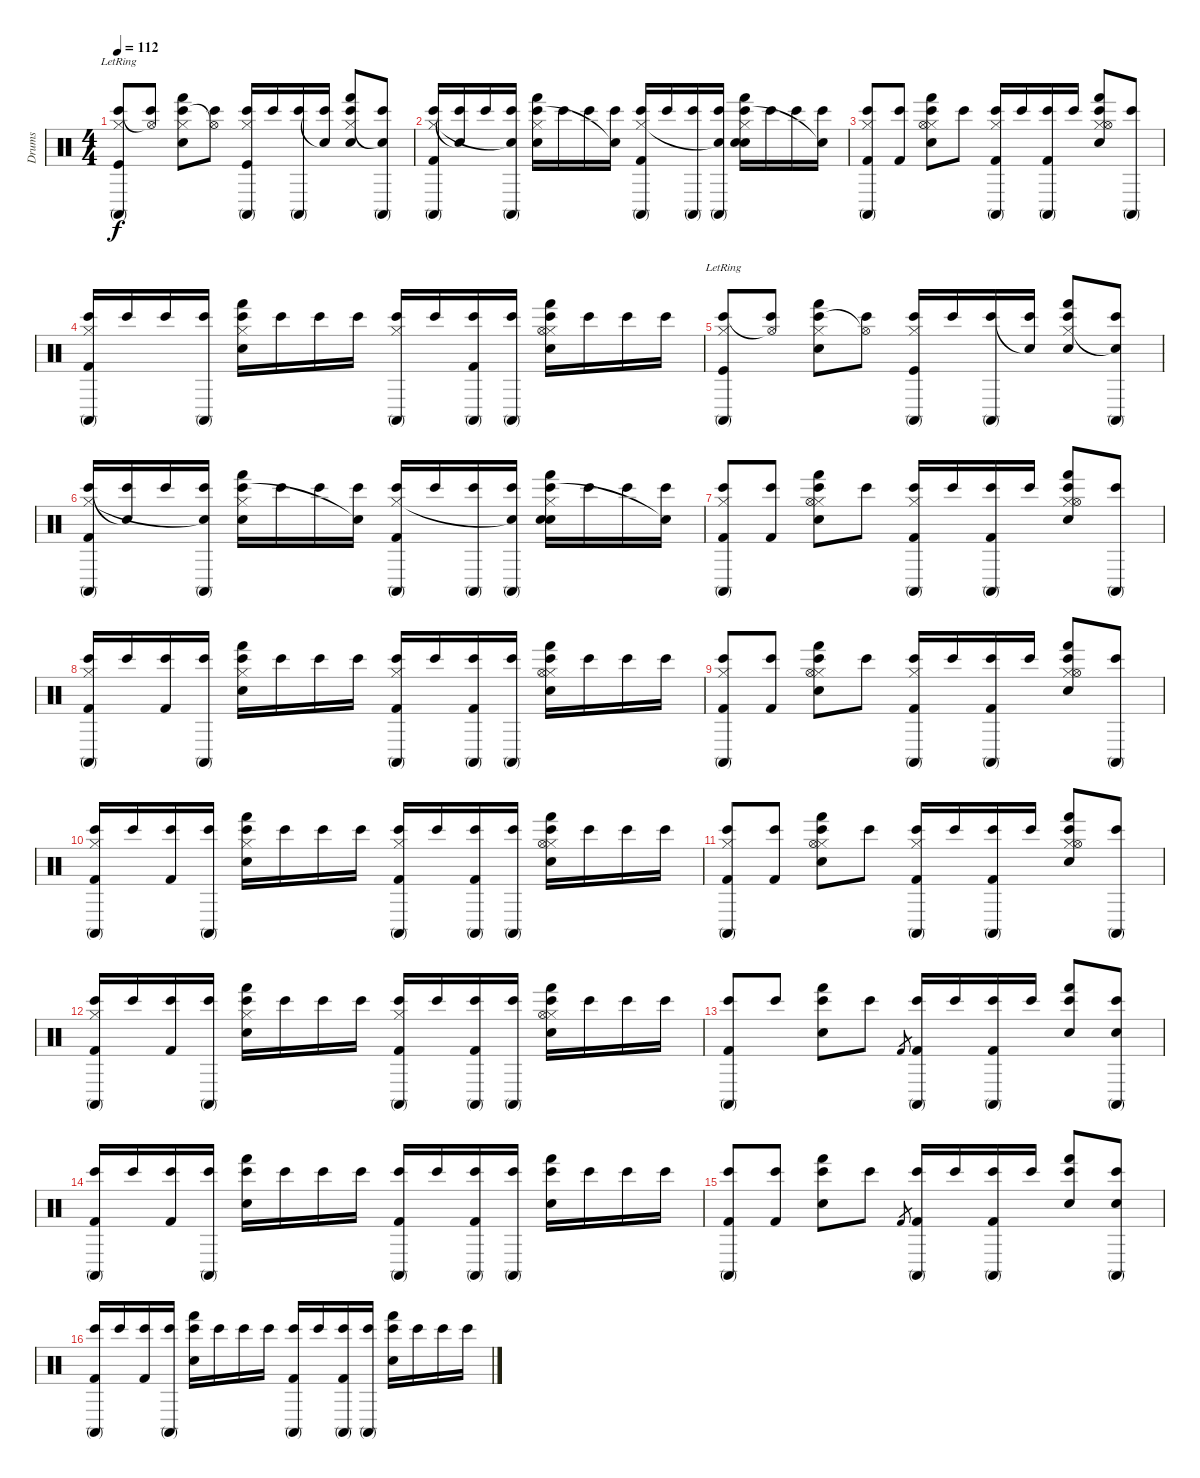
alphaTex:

\track ("Drums" "Drums") {instrument percussion}
\staff {score}
\articulation defaults
\ts (4 4)
\tempo 112
\clef neutral
\ks c
("Conga high (mute)" "Bongo High (hit)" "Hi-Hat (closed)"{lr} "Kick (hit)").8{dy f} ("Bongo High (hit)" "Hi-Hat (open)"{t}).8 ("Hand (hit)" "Bongo High (hit)" "Hi-Hat (closed)" "Snare (hit) 2").8 ("Bongo High (hit)" "Hi-Hat (open)"{t}).8 ("Conga high (mute)" "Bongo High (hit)" "Hi-Hat (closed)" "Kick (hit)").16 "Bongo High (hit)".16 ("Conga high (mute)" "Bongo High (hit)").16 ("Bongo High (hit)" "Snare (hit)"{t}).16 ("Hand (hit)" "Bongo High (hit)" "Hi-Hat (closed)" "Snare (hit) 2").8 ("Conga high (mute)" "Bongo High (hit)" "Snare (hit)"{t}).8 |
("Conga high (mute)" "Bongo High (hit)" "Hi-Hat (closed)" "Kick (hit) 2").16 ("Bongo High (hit)" "Snare (hit)"{t}).16 "Bongo High (hit)".16 ("Conga high (mute)" "Bongo High (hit)" "Snare (hit)"{t}).16 ("Hand (hit)" "Bongo High (hit)" "Hi-Hat (closed)" "Snare (hit) 2").16 "Bongo High (hit)".16 "Bongo High (hit)".16 ("Bongo High (hit)" "Snare (hit)"{t}).16 ("Conga high (mute)" "Bongo High (hit)" "Hi-Hat (closed)" "Kick (hit) 2").16 "Bongo High (hit)".16 ("Conga high (mute)" "Bongo High (hit)").16 ("Conga high (mute)" "Bongo High (hit)" "Snare (hit)"{t}).16 ("Hand (hit)" "Bongo High (hit)" "Hi-Hat (closed)" "Electric Snare (hit)" "Snare (hit) 2").16 "Bongo High (hit)".16 "Bongo High (hit)".16 ("Bongo High (hit)" "Snare (hit)"{t}).16 |
("Conga high (mute)" "Bongo High (hit)" "Hi-Hat (closed)" "Kick (hit) 2").8 ("Bongo High (hit)" "Kick (hit) 2").8 ("Hand (hit)" "Bongo High (hit)" "Hi-Hat (closed)" "Hi-Hat (open)" "Snare (hit) 2").8 "Bongo High (hit)".8 ("Conga high (mute)" "Bongo High (hit)" "Hi-Hat (closed)" "Kick (hit) 2").16 "Bongo High (hit)".16 ("Conga high (mute)" "Bongo High (hit)" "Kick (hit) 2").16 "Bongo High (hit)".16 ("Hand (hit)" "Bongo High (hit)" "Hi-Hat (closed)" "Hi-Hat (open)" "Snare (hit) 2").8 ("Conga high (mute)" "Bongo High (hit)").8 |
("Conga high (mute)" "Bongo High (hit)" "Hi-Hat (closed)" "Kick (hit) 2").16 "Bongo High (hit)".16 "Bongo High (hit)".16 ("Conga high (mute)" "Bongo High (hit)").16 ("Hand (hit)" "Bongo High (hit)" "Hi-Hat (closed)" "Snare (hit) 2").16 "Bongo High (hit)".16 "Bongo High (hit)".16 "Bongo High (hit)".16 ("Conga high (mute)" "Bongo High (hit)" "Hi-Hat (closed)").16 "Bongo High (hit)".16 ("Conga high (mute)" "Bongo High (hit)" "Kick (hit) 2").16 ("Conga high (mute)" "Bongo High (hit)").16 ("Hand (hit)" "Bongo High (hit)" "Hi-Hat (closed)" "Hi-Hat (open)" "Snare (hit) 2").16 "Bongo High (hit)".16 "Bongo High (hit)".16 "Bongo High (hit)".16 |
("Conga high (mute)" "Bongo High (hit)" "Hi-Hat (closed)"{lr} "Kick (hit)").8 ("Bongo High (hit)" "Hi-Hat (open)"{t}).8 ("Hand (hit)" "Bongo High (hit)" "Hi-Hat (closed)" "Snare (hit) 2").8 ("Bongo High (hit)" "Hi-Hat (open)"{t}).8 ("Conga high (mute)" "Bongo High (hit)" "Hi-Hat (closed)" "Kick (hit)").16 "Bongo High (hit)".16 ("Conga high (mute)" "Bongo High (hit)").16 ("Bongo High (hit)" "Snare (hit)"{t}).16 ("Hand (hit)" "Bongo High (hit)" "Hi-Hat (closed)" "Snare (hit) 2").8 ("Conga high (mute)" "Bongo High (hit)" "Snare (hit)"{t}).8 |
("Conga high (mute)" "Bongo High (hit)" "Hi-Hat (closed)" "Kick (hit) 2").16 ("Bongo High (hit)" "Snare (hit)"{t}).16 "Bongo High (hit)".16 ("Conga high (mute)" "Bongo High (hit)" "Snare (hit)"{t}).16 ("Hand (hit)" "Bongo High (hit)" "Hi-Hat (closed)" "Snare (hit) 2").16 "Bongo High (hit)".16 "Bongo High (hit)".16 ("Bongo High (hit)" "Snare (hit)"{t}).16 ("Conga high (mute)" "Bongo High (hit)" "Hi-Hat (closed)" "Kick (hit) 2").16 "Bongo High (hit)".16 ("Conga high (mute)" "Bongo High (hit)").16 ("Conga high (mute)" "Bongo High (hit)" "Snare (hit)"{t}).16 ("Hand (hit)" "Bongo High (hit)" "Hi-Hat (closed)" "Electric Snare (hit)" "Snare (hit) 2").16 "Bongo High (hit)".16 "Bongo High (hit)".16 ("Bongo High (hit)" "Snare (hit)"{t}).16 |
("Conga high (mute)" "Bongo High (hit)" "Hi-Hat (closed)" "Kick (hit) 2").8 ("Bongo High (hit)" "Kick (hit) 2").8 ("Hand (hit)" "Bongo High (hit)" "Hi-Hat (closed)" "Hi-Hat (open)" "Snare (hit) 2").8 "Bongo High (hit)".8 ("Conga high (mute)" "Bongo High (hit)" "Hi-Hat (closed)" "Kick (hit) 2").16 "Bongo High (hit)".16 ("Conga high (mute)" "Bongo High (hit)" "Kick (hit) 2").16 "Bongo High (hit)".16 ("Hand (hit)" "Bongo High (hit)" "Hi-Hat (closed)" "Hi-Hat (open)" "Snare (hit) 2").8 ("Conga high (mute)" "Bongo High (hit)").8 |
("Conga high (mute)" "Bongo High (hit)" "Hi-Hat (closed)" "Kick (hit) 2").16 "Bongo High (hit)".16 ("Bongo High (hit)" "Kick (hit) 2").16 ("Conga high (mute)" "Bongo High (hit)").16 ("Hand (hit)" "Bongo High (hit)" "Hi-Hat (closed)" "Snare (hit) 2").16 "Bongo High (hit)".16 "Bongo High (hit)".16 "Bongo High (hit)".16 ("Conga high (mute)" "Bongo High (hit)" "Hi-Hat (closed)" "Kick (hit) 2").16 "Bongo High (hit)".16 ("Conga high (mute)" "Bongo High (hit)" "Kick (hit) 2").16 ("Conga high (mute)" "Bongo High (hit)").16 ("Hand (hit)" "Bongo High (hit)" "Hi-Hat (closed)" "Hi-Hat (open)" "Snare (hit) 2").16 "Bongo High (hit)".16 "Bongo High (hit)".16 "Bongo High (hit)".16 |
("Conga high (mute)" "Bongo High (hit)" "Hi-Hat (closed)" "Kick (hit) 2").8 ("Bongo High (hit)" "Kick (hit) 2").8 ("Hand (hit)" "Bongo High (hit)" "Hi-Hat (closed)" "Hi-Hat (open)" "Snare (hit) 2").8 "Bongo High (hit)".8 ("Conga high (mute)" "Bongo High (hit)" "Hi-Hat (closed)" "Kick (hit) 2").16 "Bongo High (hit)".16 ("Conga high (mute)" "Bongo High (hit)" "Kick (hit) 2").16 "Bongo High (hit)".16 ("Hand (hit)" "Bongo High (hit)" "Hi-Hat (closed)" "Hi-Hat (open)" "Snare (hit) 2").8 ("Conga high (mute)" "Bongo High (hit)").8 |
("Conga high (mute)" "Bongo High (hit)" "Hi-Hat (closed)" "Kick (hit) 2").16 "Bongo High (hit)".16 ("Bongo High (hit)" "Kick (hit) 2").16 ("Conga high (mute)" "Bongo High (hit)").16 ("Hand (hit)" "Bongo High (hit)" "Hi-Hat (closed)" "Snare (hit) 2").16 "Bongo High (hit)".16 "Bongo High (hit)".16 "Bongo High (hit)".16 ("Conga high (mute)" "Bongo High (hit)" "Hi-Hat (closed)" "Kick (hit) 2").16 "Bongo High (hit)".16 ("Conga high (mute)" "Bongo High (hit)" "Kick (hit) 2").16 ("Conga high (mute)" "Bongo High (hit)").16 ("Hand (hit)" "Bongo High (hit)" "Hi-Hat (closed)" "Hi-Hat (open)" "Snare (hit) 2").16 "Bongo High (hit)".16 "Bongo High (hit)".16 "Bongo High (hit)".16 |
("Conga high (mute)" "Bongo High (hit)" "Hi-Hat (closed)" "Kick (hit) 2").8 ("Bongo High (hit)" "Kick (hit) 2").8 ("Hand (hit)" "Bongo High (hit)" "Hi-Hat (closed)" "Hi-Hat (open)" "Snare (hit) 2").8 "Bongo High (hit)".8 ("Conga high (mute)" "Bongo High (hit)" "Hi-Hat (closed)" "Kick (hit) 2").16 "Bongo High (hit)".16 ("Conga high (mute)" "Bongo High (hit)" "Kick (hit) 2").16 "Bongo High (hit)".16 ("Hand (hit)" "Bongo High (hit)" "Hi-Hat (closed)" "Hi-Hat (open)" "Snare (hit) 2").8 ("Conga high (mute)" "Bongo High (hit)").8 |
("Conga high (mute)" "Bongo High (hit)" "Hi-Hat (closed)" "Kick (hit) 2").16 "Bongo High (hit)".16 ("Bongo High (hit)" "Kick (hit) 2").16 ("Conga high (mute)" "Bongo High (hit)").16 ("Hand (hit)" "Bongo High (hit)" "Hi-Hat (closed)" "Snare (hit) 2").16 "Bongo High (hit)".16 "Bongo High (hit)".16 "Bongo High (hit)".16 ("Conga high (mute)" "Bongo High (hit)" "Hi-Hat (closed)" "Kick (hit) 2").16 "Bongo High (hit)".16 ("Conga high (mute)" "Bongo High (hit)" "Kick (hit) 2").16 ("Conga high (mute)" "Bongo High (hit)").16 ("Hand (hit)" "Bongo High (hit)" "Hi-Hat (closed)" "Hi-Hat (open)" "Snare (hit) 2").16 "Bongo High (hit)".16 "Bongo High (hit)".16 "Bongo High (hit)".16 |
("Conga high (mute)" "Bongo High (hit)" "Kick (hit) 2").8 "Bongo High (hit)".8 ("Hand (hit)" "Bongo High (hit)" "Snare (hit) 2").8 "Bongo High (hit)".8 "Kick (hit) 2".8{gr} ("Conga high (mute)" "Bongo High (hit)" "Kick (hit) 2").16 "Bongo High (hit)".16 ("Conga high (mute)" "Bongo High (hit)" "Kick (hit) 2").16 "Bongo High (hit)".16 ("Hand (hit)" "Bongo High (hit)" "Snare (hit) 2").8 ("Conga high (mute)" "Bongo High (hit)" "Snare (hit) 2").8 |
("Conga high (mute)" "Bongo High (hit)" "Kick (hit) 2").16 "Bongo High (hit)".16 ("Bongo High (hit)" "Kick (hit) 2").16 ("Conga high (mute)" "Bongo High (hit)").16 ("Hand (hit)" "Bongo High (hit)" "Snare (hit) 2").16 "Bongo High (hit)".16 "Bongo High (hit)".16 "Bongo High (hit)".16 ("Conga high (mute)" "Bongo High (hit)" "Kick (hit) 2").16 "Bongo High (hit)".16 ("Conga high (mute)" "Bongo High (hit)" "Kick (hit) 2").16 ("Conga high (mute)" "Bongo High (hit)").16 ("Hand (hit)" "Bongo High (hit)" "Snare (hit) 2").16 "Bongo High (hit)".16 "Bongo High (hit)".16 "Bongo High (hit)".16 |
("Conga high (mute)" "Bongo High (hit)" "Kick (hit) 2").8 ("Bongo High (hit)" "Kick (hit) 2").8 ("Hand (hit)" "Bongo High (hit)" "Snare (hit) 2").8 "Bongo High (hit)".8 "Kick (hit) 2".8{gr} ("Conga high (mute)" "Bongo High (hit)" "Kick (hit) 2").16 "Bongo High (hit)".16 ("Conga high (mute)" "Bongo High (hit)" "Kick (hit) 2").16 "Bongo High (hit)".16 ("Hand (hit)" "Bongo High (hit)" "Snare (hit) 2").8 ("Conga high (mute)" "Bongo High (hit)" "Snare (hit) 2").8 |
("Conga high (mute)" "Bongo High (hit)" "Kick (hit) 2").16 "Bongo High (hit)".16 ("Bongo High (hit)" "Kick (hit) 2").16 ("Conga high (mute)" "Bongo High (hit)").16 ("Hand (hit)" "Bongo High (hit)" "Snare (hit) 2").16 "Bongo High (hit)".16 "Bongo High (hit)".16 "Bongo High (hit)".16 ("Conga high (mute)" "Bongo High (hit)" "Kick (hit) 2").16 "Bongo High (hit)".16 ("Conga high (mute)" "Bongo High (hit)" "Kick (hit) 2").16 ("Conga high (mute)" "Bongo High (hit)").16 ("Hand (hit)" "Bongo High (hit)" "Snare (hit) 2").16 "Bongo High (hit)".16 "Bongo High (hit)".16 "Bongo High (hit)".16
